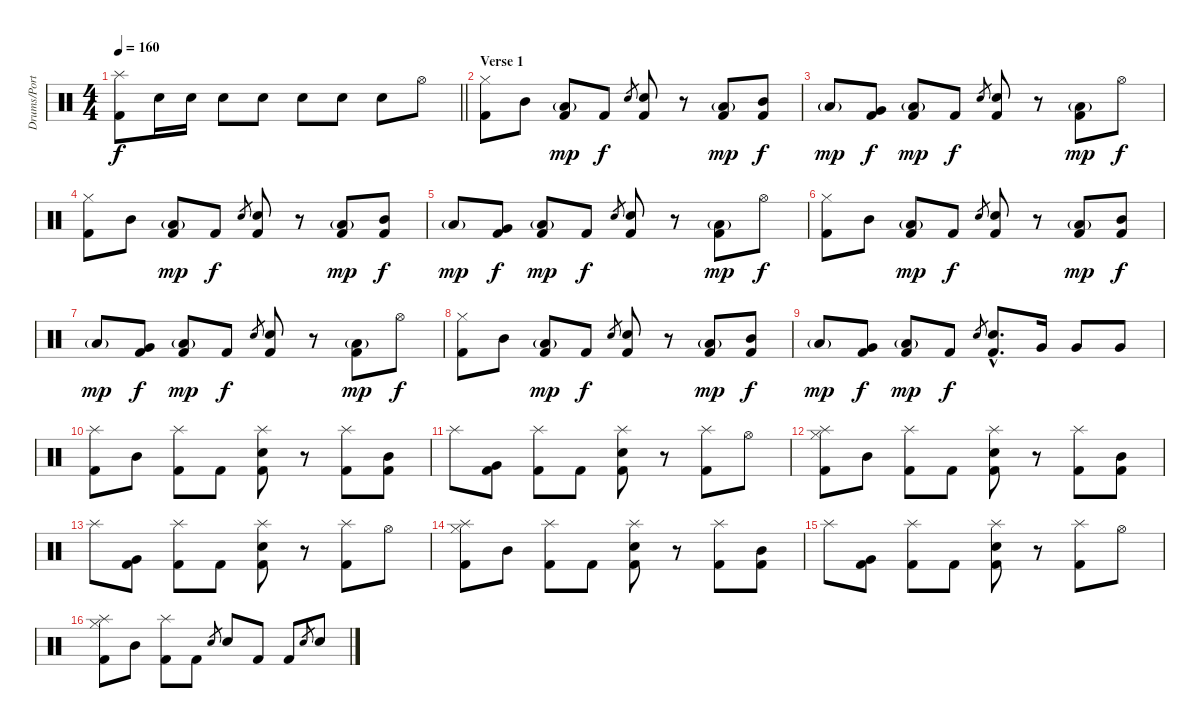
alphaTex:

\track ("Drums/Portnoy" "Drums/Port") {instrument percussion}
\staff {score}
\articulation defaults
\ts (4 4)
\tempo 160
\clef neutral
\barLineRight lightlight
\ks c
("Splash (hit)" "Kick (hit) 2").8{dy f} "Electric Snare (hit)".16 "Electric Snare (hit)".16 "Electric Snare (hit)".8 "Electric Snare (hit)".8 "Electric Snare (hit)".8 "Electric Snare (hit)".8 "Electric Snare (hit)".8 "Hi-Hat (open)".8 |
\section ("" "Verse 1")
("Hi-Hat (closed)" "Kick (hit) 2").8 "Mid Tom (hit)".8 ("Low Tom (hit)"{g} "Kick (hit) 2").8{dy mp} "Kick (hit) 2".8{dy f} "Electric Snare (hit)".8{gr} ("Electric Snare (hit)" "Kick (hit) 2").8 r.8 ("Low Tom (hit)"{g} "Kick (hit) 2").8{dy mp} ("Mid Tom (hit)" "Kick (hit) 2").8{dy f} |
"Low Tom (hit)"{g}.8{dy mp} ("Very Low Tom (hit)" "Kick (hit) 2").8{dy f} ("Low Tom (hit)"{g} "Kick (hit) 2").8{dy mp} "Kick (hit) 2".8{dy f} "Electric Snare (hit)".8{gr} ("Electric Snare (hit)" "Kick (hit) 2").8 r.8 ("Low Tom (hit)"{g} "Kick (hit) 2").8{dy mp} "Hi-Hat (open)".8{dy f} |
("Hi-Hat (closed)" "Kick (hit) 2").8 "Mid Tom (hit)".8 ("Low Tom (hit)"{g} "Kick (hit) 2").8{dy mp} "Kick (hit) 2".8{dy f} "Electric Snare (hit)".8{gr} ("Electric Snare (hit)" "Kick (hit) 2").8 r.8 ("Low Tom (hit)"{g} "Kick (hit) 2").8{dy mp} ("Mid Tom (hit)" "Kick (hit) 2").8{dy f} |
"Low Tom (hit)"{g}.8{dy mp} ("Very Low Tom (hit)" "Kick (hit) 2").8{dy f} ("Low Tom (hit)"{g} "Kick (hit) 2").8{dy mp} "Kick (hit) 2".8{dy f} "Electric Snare (hit)".8{gr} ("Electric Snare (hit)" "Kick (hit) 2").8 r.8 ("Low Tom (hit)"{g} "Kick (hit) 2").8{dy mp} "Hi-Hat (open)".8{dy f} |
("Hi-Hat (closed)" "Kick (hit) 2").8 "Mid Tom (hit)".8 ("Low Tom (hit)"{g} "Kick (hit) 2").8{dy mp} "Kick (hit) 2".8{dy f} "Electric Snare (hit)".8{gr} ("Electric Snare (hit)" "Kick (hit) 2").8 r.8 ("Low Tom (hit)"{g} "Kick (hit) 2").8{dy mp} ("Mid Tom (hit)" "Kick (hit) 2").8{dy f} |
"Low Tom (hit)"{g}.8{dy mp} ("Very Low Tom (hit)" "Kick (hit) 2").8{dy f} ("Low Tom (hit)"{g} "Kick (hit) 2").8{dy mp} "Kick (hit) 2".8{dy f} "Electric Snare (hit)".8{gr} ("Electric Snare (hit)" "Kick (hit) 2").8 r.8 ("Low Tom (hit)"{g} "Kick (hit) 2").8{dy mp} "Hi-Hat (open)".8{dy f} |
("Hi-Hat (closed)" "Kick (hit) 2").8 "Mid Tom (hit)".8 ("Low Tom (hit)"{g} "Kick (hit) 2").8{dy mp} "Kick (hit) 2".8{dy f} "Electric Snare (hit)".8{gr} ("Electric Snare (hit)" "Kick (hit) 2").8 r.8 ("Low Tom (hit)"{g} "Kick (hit) 2").8{dy mp} ("Mid Tom (hit)" "Kick (hit) 2").8{dy f} |
"Low Tom (hit)"{g}.8{dy mp} ("Very Low Tom (hit)" "Kick (hit) 2").8{dy f} ("Low Tom (hit)"{g} "Kick (hit) 2").8{dy mp} "Kick (hit) 2".8{dy f} "Electric Snare (hit)".8{gr} ("Electric Snare (hit)"{hac} "Kick (hit) 2"{hac}).8{d} "Very Low Tom (hit)".16 "Very Low Tom (hit)".8 "Very Low Tom (hit)".8 |
("Splash (hit)" "Kick (hit) 2").8 "Mid Tom (hit)".8 ("Splash (hit)" "Kick (hit) 2").8 "Kick (hit) 2".8 ("Splash (hit)" "Electric Snare (hit)" "Kick (hit) 2").8 r.8 ("Splash (hit)" "Kick (hit) 2").8 ("Mid Tom (hit)" "Kick (hit) 2").8 |
"Splash (hit)".8 ("Very Low Tom (hit)" "Kick (hit) 2").8 ("Splash (hit)" "Kick (hit) 2").8 "Kick (hit) 2".8 ("Splash (hit)" "Electric Snare (hit)" "Kick (hit) 2").8 r.8 ("Splash (hit)" "Kick (hit) 2").8 "Hi-Hat (open)".8 |
("Splash (hit)" "Hi-Hat (closed)" "Kick (hit) 2").8 "Mid Tom (hit)".8 ("Splash (hit)" "Kick (hit) 2").8 "Kick (hit) 2".8 ("Splash (hit)" "Electric Snare (hit)" "Kick (hit) 2").8 r.8 ("Splash (hit)" "Kick (hit) 2").8 ("Mid Tom (hit)" "Kick (hit) 2").8 |
"Splash (hit)".8 ("Very Low Tom (hit)" "Kick (hit) 2").8 ("Splash (hit)" "Kick (hit) 2").8 "Kick (hit) 2".8 ("Splash (hit)" "Electric Snare (hit)" "Kick (hit) 2").8 r.8 ("Splash (hit)" "Kick (hit) 2").8 "Hi-Hat (open)".8 |
("Splash (hit)" "Hi-Hat (closed)" "Kick (hit) 2").8 "Mid Tom (hit)".8 ("Splash (hit)" "Kick (hit) 2").8 "Kick (hit) 2".8 ("Splash (hit)" "Electric Snare (hit)" "Kick (hit) 2").8 r.8 ("Splash (hit)" "Kick (hit) 2").8 ("Mid Tom (hit)" "Kick (hit) 2").8 |
"Splash (hit)".8 ("Very Low Tom (hit)" "Kick (hit) 2").8 ("Splash (hit)" "Kick (hit) 2").8 "Kick (hit) 2".8 ("Splash (hit)" "Electric Snare (hit)" "Kick (hit) 2").8 r.8 ("Splash (hit)" "Kick (hit) 2").8 "Hi-Hat (open)".8 |
("Splash (hit)" "Hi-Hat (closed)" "Kick (hit) 2").8 "Mid Tom (hit)".8 ("Splash (hit)" "Kick (hit) 2").8 "Kick (hit) 2".8 "Electric Snare (hit)".8{gr} "Electric Snare (hit)".8 "Kick (hit) 2".8 "Kick (hit) 2".8 "Electric Snare (hit)".8{gr} "Electric Snare (hit)".8
